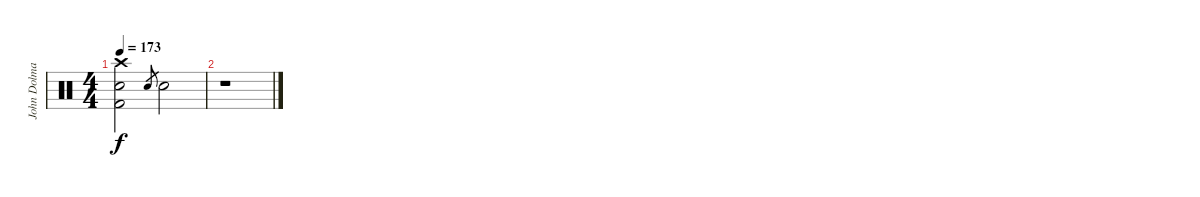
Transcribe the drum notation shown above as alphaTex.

\track ("John Dolmayan" "John Dolma") {instrument percussion}
\staff {score}
\articulation defaults
\ts (4 4)
\tempo 173
\clef neutral
\ks c
("Kick (hit) 2" "Electric Snare (hit)" "Crash high (hit)").2{dy f} "Electric Snare (hit)".8{gr} "Electric Snare (hit)".2 |
r.1
